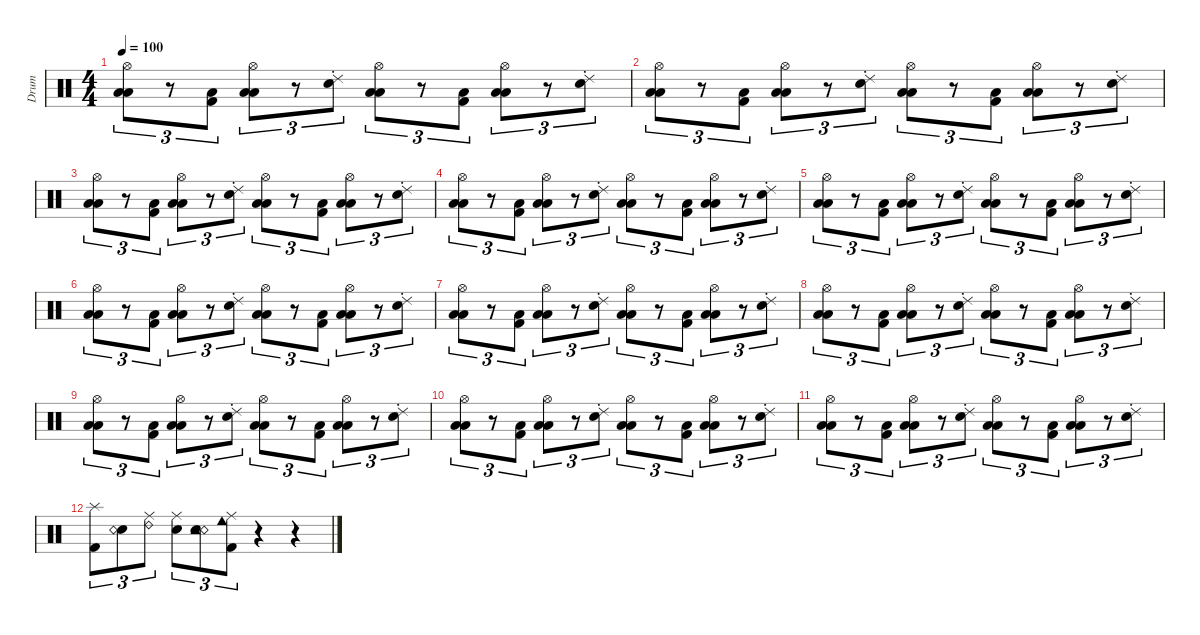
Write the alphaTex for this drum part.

\defaultSystemsLayout 4
\hideDynamics
\bracketExtendMode nobrackets
\otherSystemsTrackNameOrientation horizontal
\chordDiagramsInScore
\track ("Drumkit" "Drum") {instrument percussion}
\staff {score}
\articulation defaults
\ts (4 4)
\tempo 100
\clef neutral
\ks c
("Low Floor Tom (hit)" "Low Tom (hit)" "Hi-Hat (open)").8{tu (3 2) dy mf} r.8{tu (3 2)} ("Kick (hit) 2" "Low Floor Tom (hit)").8{tu (3 2)} ("Low Floor Tom (hit)" "Low Tom (hit)" "Hi-Hat (open)").8{tu (3 2)} r.8{tu (3 2)} ("Snare (hit) 2" "Ride (choke) 2").8{tu (3 2)} ("Low Floor Tom (hit)" "Low Tom (hit)" "Hi-Hat (open)").8{tu (3 2)} r.8{tu (3 2)} ("Kick (hit) 2" "Low Floor Tom (hit)").8{tu (3 2)} ("Low Floor Tom (hit)" "Low Tom (hit)" "Hi-Hat (open)").8{tu (3 2)} r.8{tu (3 2)} ("Snare (hit) 2" "Ride (choke) 2").8{tu (3 2)} |
("Low Floor Tom (hit)" "Low Tom (hit)" "Hi-Hat (open)").8{tu (3 2)} r.8{tu (3 2)} ("Kick (hit) 2" "Low Floor Tom (hit)").8{tu (3 2)} ("Low Floor Tom (hit)" "Low Tom (hit)" "Hi-Hat (open)").8{tu (3 2)} r.8{tu (3 2)} ("Snare (hit) 2" "Ride (choke) 2").8{tu (3 2)} ("Low Floor Tom (hit)" "Low Tom (hit)" "Hi-Hat (open)").8{tu (3 2)} r.8{tu (3 2)} ("Kick (hit) 2" "Low Floor Tom (hit)").8{tu (3 2)} ("Low Floor Tom (hit)" "Low Tom (hit)" "Hi-Hat (open)").8{tu (3 2)} r.8{tu (3 2)} ("Snare (hit) 2" "Ride (choke) 2").8{tu (3 2)} |
("Low Floor Tom (hit)" "Low Tom (hit)" "Hi-Hat (open)").8{tu (3 2)} r.8{tu (3 2)} ("Kick (hit) 2" "Low Floor Tom (hit)").8{tu (3 2)} ("Low Floor Tom (hit)" "Low Tom (hit)" "Hi-Hat (open)").8{tu (3 2)} r.8{tu (3 2)} ("Snare (hit) 2" "Ride (choke) 2").8{tu (3 2)} ("Low Floor Tom (hit)" "Low Tom (hit)" "Hi-Hat (open)").8{tu (3 2)} r.8{tu (3 2)} ("Kick (hit) 2" "Low Floor Tom (hit)").8{tu (3 2)} ("Low Floor Tom (hit)" "Low Tom (hit)" "Hi-Hat (open)").8{tu (3 2)} r.8{tu (3 2)} ("Snare (hit) 2" "Ride (choke) 2").8{tu (3 2)} |
("Low Floor Tom (hit)" "Low Tom (hit)" "Hi-Hat (open)").8{tu (3 2)} r.8{tu (3 2)} ("Kick (hit) 2" "Low Floor Tom (hit)").8{tu (3 2)} ("Low Floor Tom (hit)" "Low Tom (hit)" "Hi-Hat (open)").8{tu (3 2)} r.8{tu (3 2)} ("Snare (hit) 2" "Ride (choke) 2").8{tu (3 2)} ("Low Floor Tom (hit)" "Low Tom (hit)" "Hi-Hat (open)").8{tu (3 2)} r.8{tu (3 2)} ("Kick (hit) 2" "Low Floor Tom (hit)").8{tu (3 2)} ("Low Floor Tom (hit)" "Low Tom (hit)" "Hi-Hat (open)").8{tu (3 2)} r.8{tu (3 2)} ("Snare (hit) 2" "Ride (choke) 2").8{tu (3 2)} |
("Low Floor Tom (hit)" "Low Tom (hit)" "Hi-Hat (open)").8{tu (3 2)} r.8{tu (3 2)} ("Kick (hit) 2" "Low Floor Tom (hit)").8{tu (3 2)} ("Low Floor Tom (hit)" "Low Tom (hit)" "Hi-Hat (open)").8{tu (3 2)} r.8{tu (3 2)} ("Snare (hit) 2" "Ride (choke) 2").8{tu (3 2)} ("Low Floor Tom (hit)" "Low Tom (hit)" "Hi-Hat (open)").8{tu (3 2)} r.8{tu (3 2)} ("Kick (hit) 2" "Low Floor Tom (hit)").8{tu (3 2)} ("Low Floor Tom (hit)" "Low Tom (hit)" "Hi-Hat (open)").8{tu (3 2)} r.8{tu (3 2)} ("Snare (hit) 2" "Ride (choke) 2").8{tu (3 2)} |
("Low Floor Tom (hit)" "Low Tom (hit)" "Hi-Hat (open)").8{tu (3 2)} r.8{tu (3 2)} ("Kick (hit) 2" "Low Floor Tom (hit)").8{tu (3 2)} ("Low Floor Tom (hit)" "Low Tom (hit)" "Hi-Hat (open)").8{tu (3 2)} r.8{tu (3 2)} ("Snare (hit) 2" "Ride (choke) 2").8{tu (3 2)} ("Low Floor Tom (hit)" "Low Tom (hit)" "Hi-Hat (open)").8{tu (3 2)} r.8{tu (3 2)} ("Kick (hit) 2" "Low Floor Tom (hit)").8{tu (3 2)} ("Low Floor Tom (hit)" "Low Tom (hit)" "Hi-Hat (open)").8{tu (3 2)} r.8{tu (3 2)} ("Snare (hit) 2" "Ride (choke) 2").8{tu (3 2)} |
("Low Floor Tom (hit)" "Low Tom (hit)" "Hi-Hat (open)").8{tu (3 2)} r.8{tu (3 2)} ("Kick (hit) 2" "Low Floor Tom (hit)").8{tu (3 2)} ("Low Floor Tom (hit)" "Low Tom (hit)" "Hi-Hat (open)").8{tu (3 2)} r.8{tu (3 2)} ("Snare (hit) 2" "Ride (choke) 2").8{tu (3 2)} ("Low Floor Tom (hit)" "Low Tom (hit)" "Hi-Hat (open)").8{tu (3 2)} r.8{tu (3 2)} ("Kick (hit) 2" "Low Floor Tom (hit)").8{tu (3 2)} ("Low Floor Tom (hit)" "Low Tom (hit)" "Hi-Hat (open)").8{tu (3 2)} r.8{tu (3 2)} ("Snare (hit) 2" "Ride (choke) 2").8{tu (3 2)} |
("Low Floor Tom (hit)" "Low Tom (hit)" "Hi-Hat (open)").8{tu (3 2)} r.8{tu (3 2)} ("Kick (hit) 2" "Low Floor Tom (hit)").8{tu (3 2)} ("Low Floor Tom (hit)" "Low Tom (hit)" "Hi-Hat (open)").8{tu (3 2)} r.8{tu (3 2)} ("Snare (hit) 2" "Ride (choke) 2").8{tu (3 2)} ("Low Floor Tom (hit)" "Low Tom (hit)" "Hi-Hat (open)").8{tu (3 2)} r.8{tu (3 2)} ("Kick (hit) 2" "Low Floor Tom (hit)").8{tu (3 2)} ("Low Floor Tom (hit)" "Low Tom (hit)" "Hi-Hat (open)").8{tu (3 2)} r.8{tu (3 2)} ("Snare (hit) 2" "Ride (choke) 2").8{tu (3 2)} |
("Low Floor Tom (hit)" "Low Tom (hit)" "Hi-Hat (open)").8{tu (3 2)} r.8{tu (3 2)} ("Kick (hit) 2" "Low Floor Tom (hit)").8{tu (3 2)} ("Low Floor Tom (hit)" "Low Tom (hit)" "Hi-Hat (open)").8{tu (3 2)} r.8{tu (3 2)} ("Snare (hit) 2" "Ride (choke) 2").8{tu (3 2)} ("Low Floor Tom (hit)" "Low Tom (hit)" "Hi-Hat (open)").8{tu (3 2)} r.8{tu (3 2)} ("Kick (hit) 2" "Low Floor Tom (hit)").8{tu (3 2)} ("Low Floor Tom (hit)" "Low Tom (hit)" "Hi-Hat (open)").8{tu (3 2)} r.8{tu (3 2)} ("Snare (hit) 2" "Ride (choke) 2").8{tu (3 2)} |
("Low Floor Tom (hit)" "Low Tom (hit)" "Hi-Hat (open)").8{tu (3 2)} r.8{tu (3 2)} ("Kick (hit) 2" "Low Floor Tom (hit)").8{tu (3 2)} ("Low Floor Tom (hit)" "Low Tom (hit)" "Hi-Hat (open)").8{tu (3 2)} r.8{tu (3 2)} ("Snare (hit) 2" "Ride (choke) 2").8{tu (3 2)} ("Low Floor Tom (hit)" "Low Tom (hit)" "Hi-Hat (open)").8{tu (3 2)} r.8{tu (3 2)} ("Kick (hit) 2" "Low Floor Tom (hit)").8{tu (3 2)} ("Low Floor Tom (hit)" "Low Tom (hit)" "Hi-Hat (open)").8{tu (3 2)} r.8{tu (3 2)} ("Snare (hit) 2" "Ride (choke) 2").8{tu (3 2)} |
("Low Floor Tom (hit)" "Low Tom (hit)" "Hi-Hat (open)").8{tu (3 2)} r.8{tu (3 2)} ("Kick (hit) 2" "Low Floor Tom (hit)").8{tu (3 2)} ("Low Floor Tom (hit)" "Low Tom (hit)" "Hi-Hat (open)").8{tu (3 2)} r.8{tu (3 2)} ("Snare (hit) 2" "Ride (choke) 2").8{tu (3 2)} ("Low Floor Tom (hit)" "Low Tom (hit)" "Hi-Hat (open)").8{tu (3 2)} r.8{tu (3 2)} ("Kick (hit) 2" "Low Floor Tom (hit)").8{tu (3 2)} ("Low Floor Tom (hit)" "Low Tom (hit)" "Hi-Hat (open)").8{tu (3 2)} r.8{tu (3 2)} ("Snare (hit) 2" "Ride (choke) 2").8{tu (3 2)} |
("Splash (hit)" "Kick (hit) 2").8{tu (3 2) dy f} ("Hand Clap (hit)" "Snare (rim shot)").8{tu (3 2)} ("Ride (middle)" "Ride (bell) 2").8{tu (3 2)} ("Ride (middle)" "Snare (hit) 2").8{tu (3 2)} ("Snare (rim shot)" "Tambourine (hit)" "Hand Clap (hit)").8{tu (3 2)} ("Ride (middle)" "Kick (hit) 2" "Cowbell low (hit)").8{tu (3 2)} r.4 r.4
